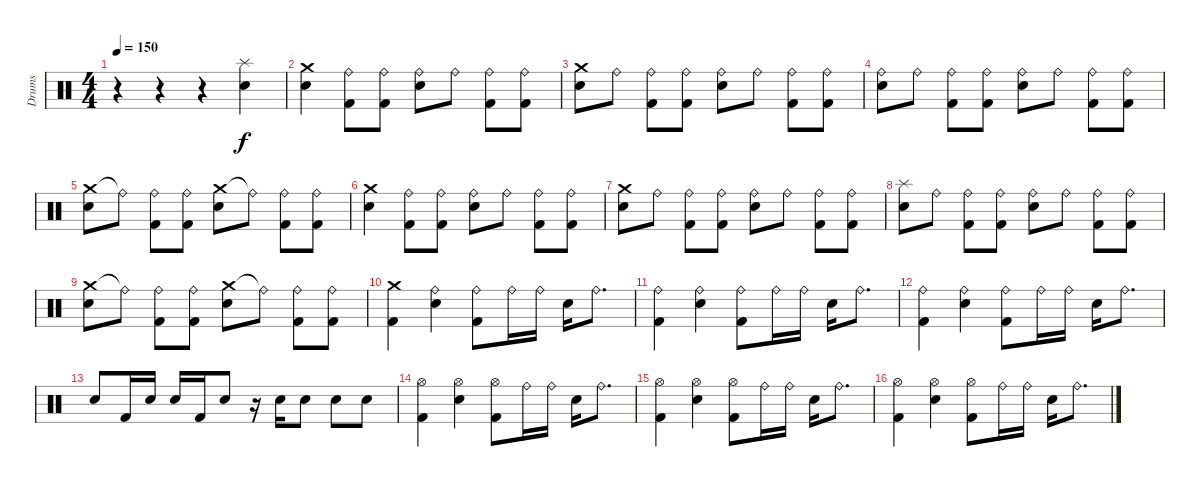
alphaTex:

\track ("Drums" "Drums") {instrument percussion}
\staff {score}
\articulation defaults
\ts (4 4)
\tempo 150
\clef neutral
\ks c
r.4{dy f} r.4 r.4 ("Splash (hit)" "Electric Snare (hit)").4 |
("Crash medium (hit)" "Electric Snare (hit)").4 ("Ride (bell)" "Kick (hit) 2").8 ("Ride (bell)" "Kick (hit) 2").8 ("Ride (bell)" "Electric Snare (hit)").8 "Ride (bell)".8 ("Ride (bell)" "Kick (hit) 2").8 ("Ride (bell)" "Kick (hit) 2").8 |
("Crash medium (hit)" "Electric Snare (hit)").8 "Ride (bell)".8 ("Ride (bell)" "Kick (hit) 2").8 ("Ride (bell)" "Kick (hit) 2").8 ("Ride (bell)" "Electric Snare (hit)").8 "Ride (bell)".8 ("Ride (bell)" "Kick (hit) 2").8 ("Ride (bell)" "Kick (hit) 2").8 |
("Ride (bell)" "Electric Snare (hit)").8 "Ride (bell)".8 ("Ride (bell)" "Kick (hit) 2").8 ("Ride (bell)" "Kick (hit) 2").8 ("Ride (bell)" "Electric Snare (hit)").8 "Ride (bell)".8 ("Ride (bell)" "Kick (hit) 2").8 ("Ride (bell)" "Kick (hit) 2").8 |
("Crash medium (hit)" "Electric Snare (hit)").8 "Ride (bell)"{t}.8 ("Ride (bell)" "Kick (hit) 2").8 ("Ride (bell)" "Kick (hit) 2").8 ("Crash medium (hit)" "Electric Snare (hit)").8 "Ride (bell)"{t}.8 ("Ride (bell)" "Kick (hit) 2").8 ("Ride (bell)" "Kick (hit) 2").8 |
("Crash medium (hit)" "Electric Snare (hit)").4 ("Ride (bell)" "Kick (hit) 2").8 ("Ride (bell)" "Kick (hit) 2").8 ("Ride (bell)" "Electric Snare (hit)").8 "Ride (bell)".8 ("Ride (bell)" "Kick (hit) 2").8 ("Ride (bell)" "Kick (hit) 2").8 |
("Crash medium (hit)" "Electric Snare (hit)").8 "Ride (bell)".8 ("Ride (bell)" "Kick (hit) 2").8 ("Ride (bell)" "Kick (hit) 2").8 ("Ride (bell)" "Electric Snare (hit)").8 "Ride (bell)".8 ("Ride (bell)" "Kick (hit) 2").8 ("Ride (bell)" "Kick (hit) 2").8 |
("Splash (hit)" "Electric Snare (hit)").8 "Ride (bell)".8 ("Ride (bell)" "Kick (hit) 2").8 ("Ride (bell)" "Kick (hit) 2").8 ("Ride (bell)" "Electric Snare (hit)").8 "Ride (bell)".8 ("Ride (bell)" "Kick (hit) 2").8 ("Ride (bell)" "Kick (hit) 2").8 |
("Crash medium (hit)" "Electric Snare (hit)").8 "Ride (bell)"{t}.8 ("Ride (bell)" "Kick (hit) 2").8 ("Ride (bell)" "Kick (hit) 2").8 ("Crash medium (hit)" "Electric Snare (hit)").8 "Ride (bell)"{t}.8 ("Ride (bell)" "Kick (hit) 2").8 ("Ride (bell)" "Kick (hit) 2").8 |
("Crash medium (hit)" "Kick (hit) 2").4 ("Ride (bell)" "Electric Snare (hit)").4 ("Ride (bell)" "Kick (hit) 2").8 "Ride (bell)".16 "Ride (bell)".16 "Electric Snare (hit)".16 "Ride (bell)".8{d} |
("Ride (bell)" "Kick (hit) 2").4 ("Ride (bell)" "Electric Snare (hit)").4 ("Ride (bell)" "Kick (hit) 2").8 "Ride (bell)".16 "Ride (bell)".16 "Electric Snare (hit)".16 "Ride (bell)".8{d} |
("Ride (bell)" "Kick (hit) 2").4 ("Ride (bell)" "Electric Snare (hit)").4 ("Ride (bell)" "Kick (hit) 2").8 "Ride (bell)".16 "Ride (bell)".16 "Electric Snare (hit)".16 "Ride (bell)".8{d} |
"Electric Snare (hit)".8 "Kick (hit) 2".16 "Electric Snare (hit)".16 "Electric Snare (hit)".16 "Kick (hit) 2".16 "Electric Snare (hit)".8 r.16 "Electric Snare (hit)".16 "Electric Snare (hit)".8 "Electric Snare (hit)".8 "Electric Snare (hit)".8 |
("Hi-Hat (open)" "Kick (hit) 2").4 ("Hi-Hat (open)" "Electric Snare (hit)").4 ("Hi-Hat (open)" "Kick (hit) 2").8 "Ride (bell)".16 "Ride (bell)".16 "Electric Snare (hit)".16 "Ride (bell)".8{d} |
("Hi-Hat (open)" "Kick (hit) 2").4 ("Hi-Hat (open)" "Electric Snare (hit)").4 ("Hi-Hat (open)" "Kick (hit) 2").8 "Ride (bell)".16 "Ride (bell)".16 "Electric Snare (hit)".16 "Ride (bell)".8{d} |
("Hi-Hat (open)" "Kick (hit) 2").4 ("Hi-Hat (open)" "Electric Snare (hit)").4 ("Hi-Hat (open)" "Kick (hit) 2").8 "Ride (bell)".16 "Ride (bell)".16 "Electric Snare (hit)".16 "Ride (bell)".8{d}
